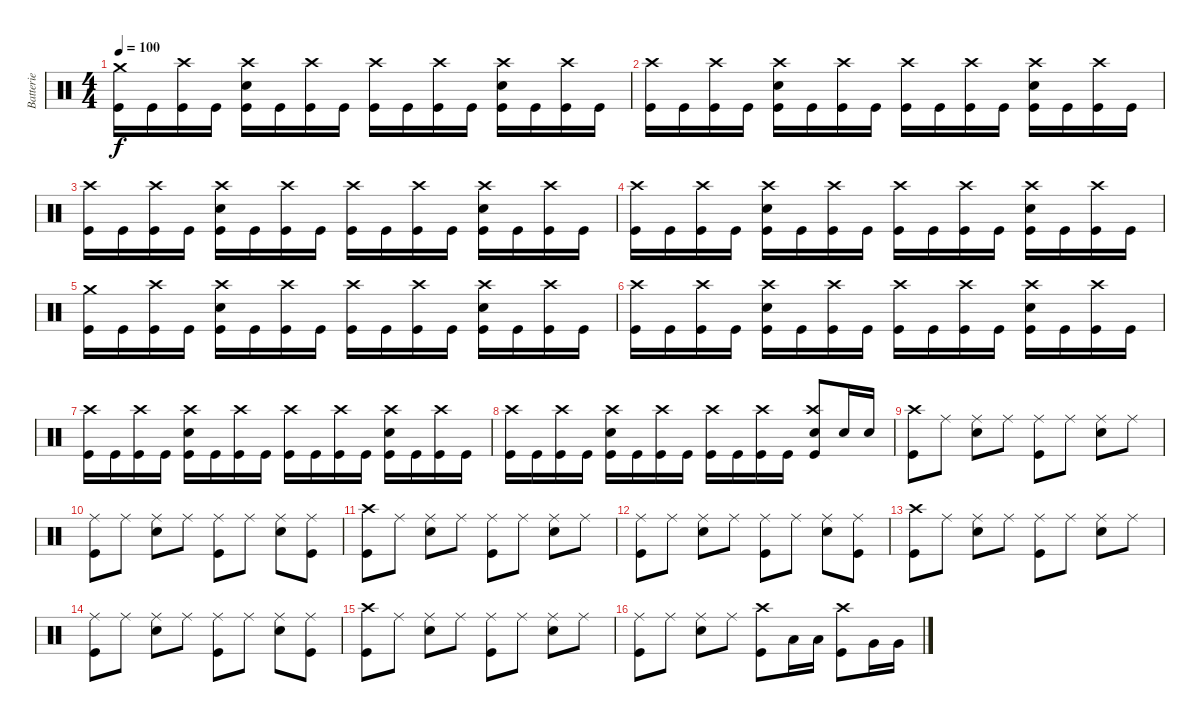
\track ("Batterie" "Batterie") {instrument percussion}
\staff {score}
\articulation defaults
\ts (4 4)
\tempo 100
\clef neutral
\ks c
("Crash medium (hit)" "Kick (hit)").16{dy f} "Kick (hit)".16 ("Crash high (hit)" "Kick (hit)").16 "Kick (hit)".16 ("Crash high (hit)" "Electric Snare (hit)" "Kick (hit)").16 "Kick (hit)".16 ("Crash high (hit)" "Kick (hit)").16 "Kick (hit)".16 ("Crash high (hit)" "Kick (hit)").16 "Kick (hit)".16 ("Crash high (hit)" "Kick (hit)").16 "Kick (hit)".16 ("Crash high (hit)" "Electric Snare (hit)" "Kick (hit)").16 "Kick (hit)".16 ("Crash high (hit)" "Kick (hit)").16 "Kick (hit)".16 |
("Crash high (hit)" "Kick (hit)").16 "Kick (hit)".16 ("Crash high (hit)" "Kick (hit)").16 "Kick (hit)".16 ("Crash high (hit)" "Electric Snare (hit)" "Kick (hit)").16 "Kick (hit)".16 ("Crash high (hit)" "Kick (hit)").16 "Kick (hit)".16 ("Crash high (hit)" "Kick (hit)").16 "Kick (hit)".16 ("Crash high (hit)" "Kick (hit)").16 "Kick (hit)".16 ("Crash high (hit)" "Electric Snare (hit)" "Kick (hit)").16 "Kick (hit)".16 ("Crash high (hit)" "Kick (hit)").16 "Kick (hit)".16 |
("Crash high (hit)" "Kick (hit)").16 "Kick (hit)".16 ("Crash high (hit)" "Kick (hit)").16 "Kick (hit)".16 ("Crash high (hit)" "Electric Snare (hit)" "Kick (hit)").16 "Kick (hit)".16 ("Crash high (hit)" "Kick (hit)").16 "Kick (hit)".16 ("Crash high (hit)" "Kick (hit)").16 "Kick (hit)".16 ("Crash high (hit)" "Kick (hit)").16 "Kick (hit)".16 ("Crash high (hit)" "Electric Snare (hit)" "Kick (hit)").16 "Kick (hit)".16 ("Crash high (hit)" "Kick (hit)").16 "Kick (hit)".16 |
("Crash high (hit)" "Kick (hit)").16 "Kick (hit)".16 ("Crash high (hit)" "Kick (hit)").16 "Kick (hit)".16 ("Crash high (hit)" "Electric Snare (hit)" "Kick (hit)").16 "Kick (hit)".16 ("Crash high (hit)" "Kick (hit)").16 "Kick (hit)".16 ("Crash high (hit)" "Kick (hit)").16 "Kick (hit)".16 ("Crash high (hit)" "Kick (hit)").16 "Kick (hit)".16 ("Crash high (hit)" "Electric Snare (hit)" "Kick (hit)").16 "Kick (hit)".16 ("Crash high (hit)" "Kick (hit)").16 "Kick (hit)".16 |
("Crash medium (hit)" "Kick (hit)").16 "Kick (hit)".16 ("Crash high (hit)" "Kick (hit)").16 "Kick (hit)".16 ("Crash high (hit)" "Electric Snare (hit)" "Kick (hit)").16 "Kick (hit)".16 ("Crash high (hit)" "Kick (hit)").16 "Kick (hit)".16 ("Crash high (hit)" "Kick (hit)").16 "Kick (hit)".16 ("Crash high (hit)" "Kick (hit)").16 "Kick (hit)".16 ("Crash high (hit)" "Electric Snare (hit)" "Kick (hit)").16 "Kick (hit)".16 ("Crash high (hit)" "Kick (hit)").16 "Kick (hit)".16 |
("Crash high (hit)" "Kick (hit)").16 "Kick (hit)".16 ("Crash high (hit)" "Kick (hit)").16 "Kick (hit)".16 ("Crash high (hit)" "Electric Snare (hit)" "Kick (hit)").16 "Kick (hit)".16 ("Crash high (hit)" "Kick (hit)").16 "Kick (hit)".16 ("Crash high (hit)" "Kick (hit)").16 "Kick (hit)".16 ("Crash high (hit)" "Kick (hit)").16 "Kick (hit)".16 ("Crash high (hit)" "Electric Snare (hit)" "Kick (hit)").16 "Kick (hit)".16 ("Crash high (hit)" "Kick (hit)").16 "Kick (hit)".16 |
("Crash high (hit)" "Kick (hit)").16 "Kick (hit)".16 ("Crash high (hit)" "Kick (hit)").16 "Kick (hit)".16 ("Crash high (hit)" "Electric Snare (hit)" "Kick (hit)").16 "Kick (hit)".16 ("Crash high (hit)" "Kick (hit)").16 "Kick (hit)".16 ("Crash high (hit)" "Kick (hit)").16 "Kick (hit)".16 ("Crash high (hit)" "Kick (hit)").16 "Kick (hit)".16 ("Crash high (hit)" "Electric Snare (hit)" "Kick (hit)").16 "Kick (hit)".16 ("Crash high (hit)" "Kick (hit)").16 "Kick (hit)".16 |
("Crash high (hit)" "Kick (hit)").16 "Kick (hit)".16 ("Crash high (hit)" "Kick (hit)").16 "Kick (hit)".16 ("Crash high (hit)" "Electric Snare (hit)" "Kick (hit)").16 "Kick (hit)".16 ("Crash high (hit)" "Kick (hit)").16 "Kick (hit)".16 ("Crash high (hit)" "Kick (hit)").16 "Kick (hit)".16 ("Crash high (hit)" "Kick (hit)").16 "Kick (hit)".16 ("Crash high (hit)" "Electric Snare (hit)" "Kick (hit)").8 "Electric Snare (hit)".16 "Electric Snare (hit)".16 |
("Crash high (hit)" "Kick (hit)").8 "Ride (middle)".8 ("Ride (middle)" "Electric Snare (hit)").8 "Ride (middle)".8 ("Ride (middle)" "Kick (hit)").8 "Ride (middle)".8 ("Ride (middle)" "Electric Snare (hit)").8 "Ride (middle)".8 |
("Ride (middle)" "Kick (hit)").8 "Ride (middle)".8 ("Ride (middle)" "Electric Snare (hit)").8 "Ride (middle)".8 ("Ride (middle)" "Kick (hit)").8 "Ride (middle)".8 ("Ride (middle)" "Electric Snare (hit)").8 ("Ride (middle)" "Kick (hit)").8 |
("Crash high (hit)" "Kick (hit)").8 "Ride (middle)".8 ("Ride (middle)" "Electric Snare (hit)").8 "Ride (middle)".8 ("Ride (middle)" "Kick (hit)").8 "Ride (middle)".8 ("Ride (middle)" "Electric Snare (hit)").8 "Ride (middle)".8 |
("Ride (middle)" "Kick (hit)").8 "Ride (middle)".8 ("Ride (middle)" "Electric Snare (hit)").8 "Ride (middle)".8 ("Ride (middle)" "Kick (hit)").8 "Ride (middle)".8 ("Ride (middle)" "Electric Snare (hit)").8 ("Ride (middle)" "Kick (hit)").8 |
("Crash high (hit)" "Kick (hit)").8 "Ride (middle)".8 ("Ride (middle)" "Electric Snare (hit)").8 "Ride (middle)".8 ("Ride (middle)" "Kick (hit)").8 "Ride (middle)".8 ("Ride (middle)" "Electric Snare (hit)").8 "Ride (middle)".8 |
("Ride (middle)" "Kick (hit)").8 "Ride (middle)".8 ("Ride (middle)" "Electric Snare (hit)").8 "Ride (middle)".8 ("Ride (middle)" "Kick (hit)").8 "Ride (middle)".8 ("Ride (middle)" "Electric Snare (hit)").8 ("Ride (middle)" "Kick (hit)").8 |
("Crash high (hit)" "Kick (hit)").8 "Ride (middle)".8 ("Ride (middle)" "Electric Snare (hit)").8 "Ride (middle)".8 ("Ride (middle)" "Kick (hit)").8 "Ride (middle)".8 ("Ride (middle)" "Electric Snare (hit)").8 "Ride (middle)".8 |
("Ride (middle)" "Kick (hit)").8 "Ride (middle)".8 ("Ride (middle)" "Electric Snare (hit)").8 "Ride (middle)".8 ("Crash high (hit)" "Kick (hit)").8 "Low Tom (hit)".16 "Low Tom (hit)".16 ("Crash high (hit)" "Kick (hit)").8 "Very Low Tom (hit)".16 "Very Low Tom (hit)".16
